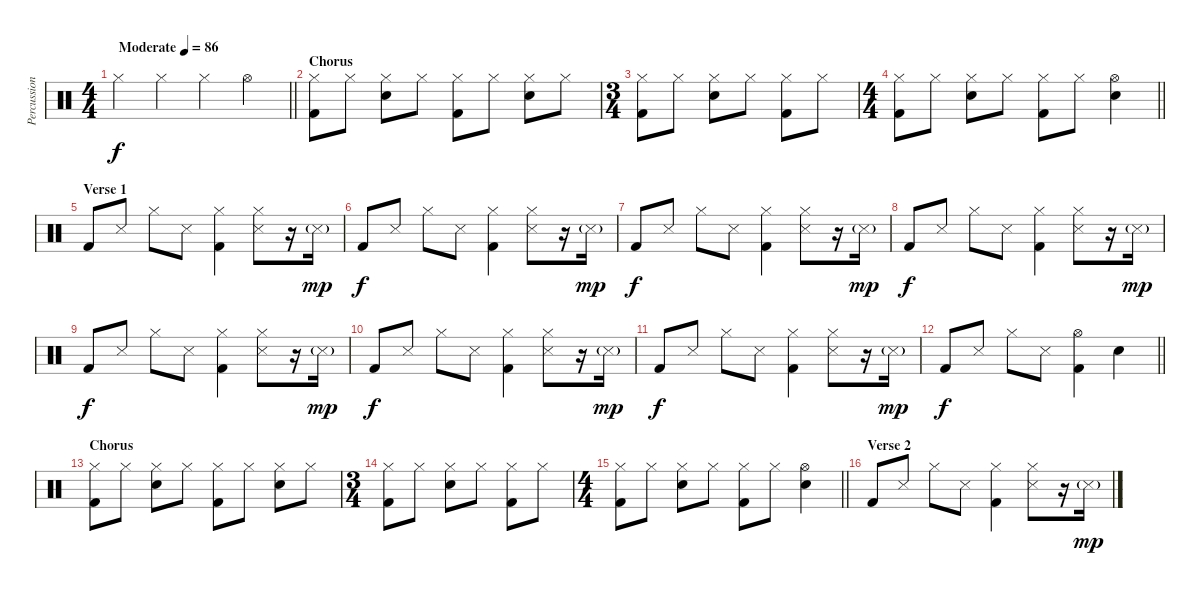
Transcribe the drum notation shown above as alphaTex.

\track ("Percussion" "Percussion") {instrument percussion}
\staff {score}
\articulation defaults
\ts (4 4)
\tempo (86 "Moderate")
\clef neutral
\barLineRight lightlight
\ks c "Hi-Hat (closed)".4{dy f} "Hi-Hat (closed)".4 "Hi-Hat (closed)".4 "Hi-Hat (open)".4
|
\section ("" "Chorus")
("Hi-Hat (closed)" "Kick (hit) 2").8 "Hi-Hat (closed)".8 ("Hi-Hat (closed)" "Snare (hit) 2").8 "Hi-Hat (closed)".8 ("Hi-Hat (closed)" "Kick (hit) 2").8 "Hi-Hat (closed)".8 ("Hi-Hat (closed)" "Snare (hit) 2").8 "Hi-Hat (closed)".8 |
\ts (3 4)
("Hi-Hat (closed)" "Kick (hit) 2").8 "Hi-Hat (closed)".8 ("Hi-Hat (closed)" "Snare (hit) 2").8 "Hi-Hat (closed)".8 ("Hi-Hat (closed)" "Kick (hit) 2").8 "Hi-Hat (closed)".8 |
\ts (4 4)
\barLineRight lightlight
("Hi-Hat (closed)" "Kick (hit) 2").8 "Hi-Hat (closed)".8 ("Hi-Hat (closed)" "Snare (hit) 2").8 "Hi-Hat (closed)".8 ("Hi-Hat (closed)" "Kick (hit) 2").8 "Hi-Hat (closed)".8 ("Hi-Hat (open)" "Snare (hit) 2").4 |
\section ("" "Verse 1")
"Kick (hit) 2".8 "Snare (side stick) 3".8 "Hi-Hat (closed)".8 "Snare (side stick) 3".8 ("Hi-Hat (closed)" "Kick (hit) 2").4 ("Hi-Hat (closed)" "Snare (side stick) 3").8 r.16 "Snare (side stick) 3"{g}.16{dy mp} |
"Kick (hit) 2".8{dy f} "Snare (side stick) 3".8 "Hi-Hat (closed)".8 "Snare (side stick) 3".8 ("Hi-Hat (closed)" "Kick (hit) 2").4 ("Hi-Hat (closed)" "Snare (side stick) 3").8 r.16 "Snare (side stick) 3"{g}.16{dy mp} |
"Kick (hit) 2".8{dy f} "Snare (side stick) 3".8 "Hi-Hat (closed)".8 "Snare (side stick) 3".8 ("Hi-Hat (closed)" "Kick (hit) 2").4 ("Hi-Hat (closed)" "Snare (side stick) 3").8 r.16 "Snare (side stick) 3"{g}.16{dy mp} |
"Kick (hit) 2".8{dy f} "Snare (side stick) 3".8 "Hi-Hat (closed)".8 "Snare (side stick) 3".8 ("Hi-Hat (closed)" "Kick (hit) 2").4 ("Hi-Hat (closed)" "Snare (side stick) 3").8 r.16 "Snare (side stick) 3"{g}.16{dy mp} |
"Kick (hit) 2".8{dy f} "Snare (side stick) 3".8 "Hi-Hat (closed)".8 "Snare (side stick) 3".8 ("Hi-Hat (closed)" "Kick (hit) 2").4 ("Hi-Hat (closed)" "Snare (side stick) 3").8 r.16 "Snare (side stick) 3"{g}.16{dy mp} |
"Kick (hit) 2".8{dy f} "Snare (side stick) 3".8 "Hi-Hat (closed)".8 "Snare (side stick) 3".8 ("Hi-Hat (closed)" "Kick (hit) 2").4 ("Hi-Hat (closed)" "Snare (side stick) 3").8 r.16 "Snare (side stick) 3"{g}.16{dy mp} |
"Kick (hit) 2".8{dy f} "Snare (side stick) 3".8 "Hi-Hat (closed)".8 "Snare (side stick) 3".8 ("Hi-Hat (closed)" "Kick (hit) 2").4 ("Hi-Hat (closed)" "Snare (side stick) 3").8 r.16 "Snare (side stick) 3"{g}.16{dy mp} |
\barLineRight lightlight "Kick (hit) 2".8{dy f} "Snare (side stick) 3".8 "Hi-Hat (closed)".8 "Snare (side stick) 3".8
("Hi-Hat (open)" "Kick (hit) 2").4 "Snare (hit) 2".4 |
\section ("" "Chorus")
("Hi-Hat (closed)" "Kick (hit) 2").8 "Hi-Hat (closed)".8 ("Hi-Hat (closed)" "Snare (hit) 2").8 "Hi-Hat (closed)".8 ("Hi-Hat (closed)" "Kick (hit) 2").8 "Hi-Hat (closed)".8 ("Hi-Hat (closed)" "Snare (hit) 2").8 "Hi-Hat (closed)".8 |
\ts (3 4)
("Hi-Hat (closed)" "Kick (hit) 2").8 "Hi-Hat (closed)".8 ("Hi-Hat (closed)" "Snare (hit) 2").8 "Hi-Hat (closed)".8 ("Hi-Hat (closed)" "Kick (hit) 2").8 "Hi-Hat (closed)".8 |
\ts (4 4)
\barLineRight lightlight
("Hi-Hat (closed)" "Kick (hit) 2").8 "Hi-Hat (closed)".8 ("Hi-Hat (closed)" "Snare (hit) 2").8 "Hi-Hat (closed)".8 ("Hi-Hat (closed)" "Kick (hit) 2").8 "Hi-Hat (closed)".8 ("Hi-Hat (open)" "Snare (hit) 2").4 |
\section ("" "Verse 2")
"Kick (hit) 2".8 "Snare (side stick) 3".8 "Hi-Hat (closed)".8 "Snare (side stick) 3".8 ("Hi-Hat (closed)" "Kick (hit) 2").4 ("Hi-Hat (closed)" "Snare (side stick) 3").8 r.16 "Snare (side stick) 3"{g}.16{dy mp}
